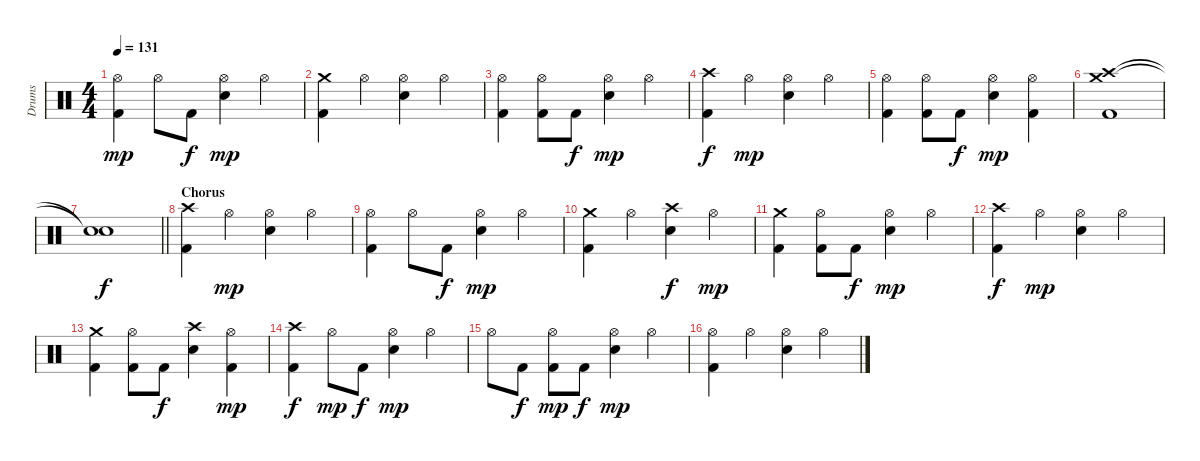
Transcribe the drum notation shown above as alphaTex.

\track ("Drums" "Drums") {instrument percussion}
\staff {score}
\articulation defaults
\ts (4 4)
\tempo 131
\clef neutral
\ks c
("Hi-Hat (open)" "Kick (hit) 2").4{dy mp} "Hi-Hat (open)".8 "Kick (hit) 2".8{dy f} ("Hi-Hat (open)" "Electric Snare (hit)").4{dy mp} "Hi-Hat (open)".4 |
("Crash medium (hit)" "Kick (hit) 2").4 "Hi-Hat (open)".4 ("Hi-Hat (open)" "Electric Snare (hit)").4 "Hi-Hat (open)".4 |
("Hi-Hat (open)" "Kick (hit) 2").4 ("Hi-Hat (open)" "Kick (hit) 2").8 "Kick (hit) 2".8{dy f} ("Hi-Hat (open)" "Electric Snare (hit)").4{dy mp} "Hi-Hat (open)".4 |
("Crash high (hit)" "Kick (hit) 2").4{dy f} "Hi-Hat (open)".4{dy mp} ("Hi-Hat (open)" "Electric Snare (hit)").4 "Hi-Hat (open)".4 |
("Hi-Hat (open)" "Kick (hit) 2").4 ("Hi-Hat (open)" "Kick (hit) 2").8 "Kick (hit) 2".8{dy f} ("Hi-Hat (open)" "Electric Snare (hit)").4{dy mp} ("Hi-Hat (open)" "Kick (hit) 2").4 |
("Crash high (hit)" "Crash medium (hit)" "Kick (hit) 2").1 |
\barLineRight lightlight
("Snare (hit)"{t} "Snare (hit)"{t}).1{dy f} |
\section ("" "Chorus")
("Crash high (hit)" "Kick (hit) 2").4 "Hi-Hat (open)".4{dy mp} ("Hi-Hat (open)" "Electric Snare (hit)").4 "Hi-Hat (open)".4 |
("Hi-Hat (open)" "Kick (hit) 2").4 "Hi-Hat (open)".8 "Kick (hit) 2".8{dy f} ("Hi-Hat (open)" "Electric Snare (hit)").4{dy mp} "Hi-Hat (open)".4 |
("Crash medium (hit)" "Kick (hit) 2").4 "Hi-Hat (open)".4 ("Crash high (hit)" "Electric Snare (hit)").4{dy f} "Hi-Hat (open)".4{dy mp} |
("Crash medium (hit)" "Kick (hit) 2").4 ("Hi-Hat (open)" "Kick (hit) 2").8 "Kick (hit) 2".8{dy f} ("Hi-Hat (open)" "Electric Snare (hit)").4{dy mp} "Hi-Hat (open)".4 |
("Crash high (hit)" "Kick (hit) 2").4{dy f} "Hi-Hat (open)".4{dy mp} ("Hi-Hat (open)" "Electric Snare (hit)").4 "Hi-Hat (open)".4 |
("Crash medium (hit)" "Kick (hit) 2").4 ("Hi-Hat (open)" "Kick (hit) 2").8 "Kick (hit) 2".8{dy f} ("Crash high (hit)" "Electric Snare (hit)").4 ("Hi-Hat (open)" "Kick (hit) 2").4{dy mp} |
("Crash high (hit)" "Kick (hit) 2").4{dy f} "Hi-Hat (open)".8{dy mp} "Kick (hit) 2".8{dy f} ("Hi-Hat (open)" "Electric Snare (hit)").4{dy mp} "Hi-Hat (open)".4 |
"Hi-Hat (open)".8 "Kick (hit) 2".8{dy f} ("Hi-Hat (open)" "Kick (hit) 2").8{dy mp} "Kick (hit) 2".8{dy f} ("Hi-Hat (open)" "Electric Snare (hit)").4{dy mp} "Hi-Hat (open)".4 |
("Hi-Hat (open)" "Kick (hit) 2").4 "Hi-Hat (open)".4 ("Hi-Hat (open)" "Electric Snare (hit)").4 "Hi-Hat (open)".4
